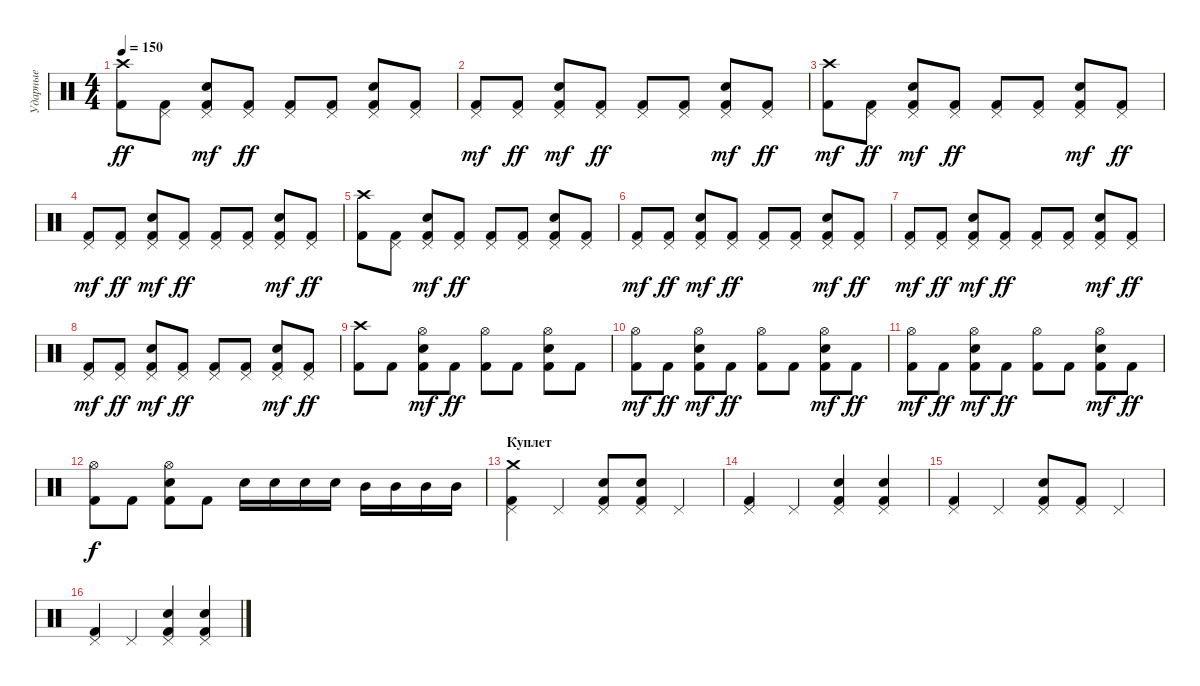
\track ("Ударные" "Ударные") {instrument percussion}
\staff {score}
\articulation defaults
\ts (4 4)
\tempo 150
\clef neutral
\ks c
("Crash high (hit)" "Kick (hit) 2").8{dy ff} ("Kick (hit) 2" "Pedal Hi-Hat (hit)").8 ("Kick (hit) 2" "Electric Snare (hit)" "Pedal Hi-Hat (hit)").8{dy mf} ("Kick (hit) 2" "Pedal Hi-Hat (hit)").8{dy ff} ("Pedal Hi-Hat (hit)" "Kick (hit) 2").8 ("Kick (hit) 2" "Pedal Hi-Hat (hit)").8 ("Kick (hit) 2" "Pedal Hi-Hat (hit)" "Electric Snare (hit)").8 ("Kick (hit) 2" "Pedal Hi-Hat (hit)").8 |
("Kick (hit) 2" "Pedal Hi-Hat (hit)").8{dy mf} ("Kick (hit) 2" "Pedal Hi-Hat (hit)").8{dy ff} ("Electric Snare (hit)" "Kick (hit) 2" "Pedal Hi-Hat (hit)").8{dy mf} ("Kick (hit) 2" "Pedal Hi-Hat (hit)").8{dy ff} ("Pedal Hi-Hat (hit)" "Kick (hit) 2").8 ("Kick (hit) 2" "Pedal Hi-Hat (hit)").8 ("Electric Snare (hit)" "Kick (hit) 2" "Pedal Hi-Hat (hit)").8{dy mf} ("Kick (hit) 2" "Pedal Hi-Hat (hit)").8{dy ff} |
("Kick (hit) 2" "Crash high (hit)").8{dy mf} ("Kick (hit) 2" "Pedal Hi-Hat (hit)").8{dy ff} ("Electric Snare (hit)" "Kick (hit) 2" "Pedal Hi-Hat (hit)").8{dy mf} ("Kick (hit) 2" "Pedal Hi-Hat (hit)").8{dy ff} ("Pedal Hi-Hat (hit)" "Kick (hit) 2").8 ("Kick (hit) 2" "Pedal Hi-Hat (hit)").8 ("Electric Snare (hit)" "Kick (hit) 2" "Pedal Hi-Hat (hit)").8{dy mf} ("Kick (hit) 2" "Pedal Hi-Hat (hit)").8{dy ff} |
("Kick (hit) 2" "Pedal Hi-Hat (hit)").8{dy mf} ("Kick (hit) 2" "Pedal Hi-Hat (hit)").8{dy ff} ("Electric Snare (hit)" "Kick (hit) 2" "Pedal Hi-Hat (hit)").8{dy mf} ("Kick (hit) 2" "Pedal Hi-Hat (hit)").8{dy ff} ("Pedal Hi-Hat (hit)" "Kick (hit) 2").8 ("Kick (hit) 2" "Pedal Hi-Hat (hit)").8 ("Electric Snare (hit)" "Kick (hit) 2" "Pedal Hi-Hat (hit)").8{dy mf} ("Kick (hit) 2" "Pedal Hi-Hat (hit)").8{dy ff} |
("Crash high (hit)" "Kick (hit) 2").8 ("Kick (hit) 2" "Pedal Hi-Hat (hit)").8 ("Kick (hit) 2" "Electric Snare (hit)" "Pedal Hi-Hat (hit)").8{dy mf} ("Kick (hit) 2" "Pedal Hi-Hat (hit)").8{dy ff} ("Pedal Hi-Hat (hit)" "Kick (hit) 2").8 ("Kick (hit) 2" "Pedal Hi-Hat (hit)").8 ("Kick (hit) 2" "Pedal Hi-Hat (hit)" "Electric Snare (hit)").8 ("Kick (hit) 2" "Pedal Hi-Hat (hit)").8 |
("Kick (hit) 2" "Pedal Hi-Hat (hit)").8{dy mf} ("Kick (hit) 2" "Pedal Hi-Hat (hit)").8{dy ff} ("Electric Snare (hit)" "Kick (hit) 2" "Pedal Hi-Hat (hit)").8{dy mf} ("Kick (hit) 2" "Pedal Hi-Hat (hit)").8{dy ff} ("Pedal Hi-Hat (hit)" "Kick (hit) 2").8 ("Kick (hit) 2" "Pedal Hi-Hat (hit)").8 ("Electric Snare (hit)" "Kick (hit) 2" "Pedal Hi-Hat (hit)").8{dy mf} ("Kick (hit) 2" "Pedal Hi-Hat (hit)").8{dy ff} |
("Kick (hit) 2" "Pedal Hi-Hat (hit)").8{dy mf} ("Kick (hit) 2" "Pedal Hi-Hat (hit)").8{dy ff} ("Electric Snare (hit)" "Kick (hit) 2" "Pedal Hi-Hat (hit)").8{dy mf} ("Kick (hit) 2" "Pedal Hi-Hat (hit)").8{dy ff} ("Pedal Hi-Hat (hit)" "Kick (hit) 2").8 ("Kick (hit) 2" "Pedal Hi-Hat (hit)").8 ("Electric Snare (hit)" "Kick (hit) 2" "Pedal Hi-Hat (hit)").8{dy mf} ("Kick (hit) 2" "Pedal Hi-Hat (hit)").8{dy ff} |
("Kick (hit) 2" "Pedal Hi-Hat (hit)").8{dy mf} ("Kick (hit) 2" "Pedal Hi-Hat (hit)").8{dy ff} ("Electric Snare (hit)" "Kick (hit) 2" "Pedal Hi-Hat (hit)").8{dy mf} ("Kick (hit) 2" "Pedal Hi-Hat (hit)").8{dy ff} ("Pedal Hi-Hat (hit)" "Kick (hit) 2").8 ("Kick (hit) 2" "Pedal Hi-Hat (hit)").8 ("Electric Snare (hit)" "Kick (hit) 2" "Pedal Hi-Hat (hit)").8{dy mf} ("Kick (hit) 2" "Pedal Hi-Hat (hit)").8{dy ff} |
("Crash high (hit)" "Kick (hit) 2").8 "Kick (hit) 2".8 ("Kick (hit) 2" "Electric Snare (hit)" "Hi-Hat (open)").8{dy mf} "Kick (hit) 2".8{dy ff} ("Hi-Hat (open)" "Kick (hit) 2").8 "Kick (hit) 2".8 ("Kick (hit) 2" "Hi-Hat (open)" "Electric Snare (hit)").8 "Kick (hit) 2".8 |
("Kick (hit) 2" "Hi-Hat (open)").8{dy mf} "Kick (hit) 2".8{dy ff} ("Electric Snare (hit)" "Kick (hit) 2" "Hi-Hat (open)").8{dy mf} "Kick (hit) 2".8{dy ff} ("Hi-Hat (open)" "Kick (hit) 2").8 "Kick (hit) 2".8 ("Electric Snare (hit)" "Kick (hit) 2" "Hi-Hat (open)").8{dy mf} "Kick (hit) 2".8{dy ff} |
("Kick (hit) 2" "Hi-Hat (open)").8{dy mf} "Kick (hit) 2".8{dy ff} ("Electric Snare (hit)" "Kick (hit) 2" "Hi-Hat (open)").8{dy mf} "Kick (hit) 2".8{dy ff} ("Hi-Hat (open)" "Kick (hit) 2").8 "Kick (hit) 2".8 ("Electric Snare (hit)" "Kick (hit) 2" "Hi-Hat (open)").8{dy mf} "Kick (hit) 2".8{dy ff} |
("Hi-Hat (open)" "Kick (hit) 2").8{dy f} "Kick (hit) 2".8 ("Kick (hit) 2" "Hi-Hat (open)" "Electric Snare (hit)").8 "Kick (hit) 2".8 "Electric Snare (hit)".16 "Electric Snare (hit)".16 "Electric Snare (hit)".16 "Electric Snare (hit)".16 "Mid Tom (hit)".16 "Mid Tom (hit)".16 "Mid Tom (hit)".16 "Mid Tom (hit)".16 |
\section ("" "Куплет")
("Pedal Hi-Hat (hit)" "Crash medium (hit)" "Kick (hit) 2").4 "Pedal Hi-Hat (hit)".4 ("Pedal Hi-Hat (hit)" "Electric Snare (hit)" "Kick (hit) 2").8 ("Pedal Hi-Hat (hit)" "Electric Snare (hit)" "Kick (hit) 2").8 "Pedal Hi-Hat (hit)".4 |
("Pedal Hi-Hat (hit)" "Kick (hit) 2").4 "Pedal Hi-Hat (hit)".4 ("Pedal Hi-Hat (hit)" "Electric Snare (hit)" "Kick (hit) 2").4 ("Pedal Hi-Hat (hit)" "Electric Snare (hit)" "Kick (hit) 2").4 |
("Pedal Hi-Hat (hit)" "Kick (hit) 2").4 "Pedal Hi-Hat (hit)".4 ("Pedal Hi-Hat (hit)" "Electric Snare (hit)" "Kick (hit) 2").8 ("Pedal Hi-Hat (hit)" "Kick (hit) 2").8 "Pedal Hi-Hat (hit)".4 |
("Pedal Hi-Hat (hit)" "Kick (hit) 2").4 "Pedal Hi-Hat (hit)".4 ("Pedal Hi-Hat (hit)" "Electric Snare (hit)" "Kick (hit) 2").4 ("Pedal Hi-Hat (hit)" "Electric Snare (hit)" "Kick (hit) 2").4
